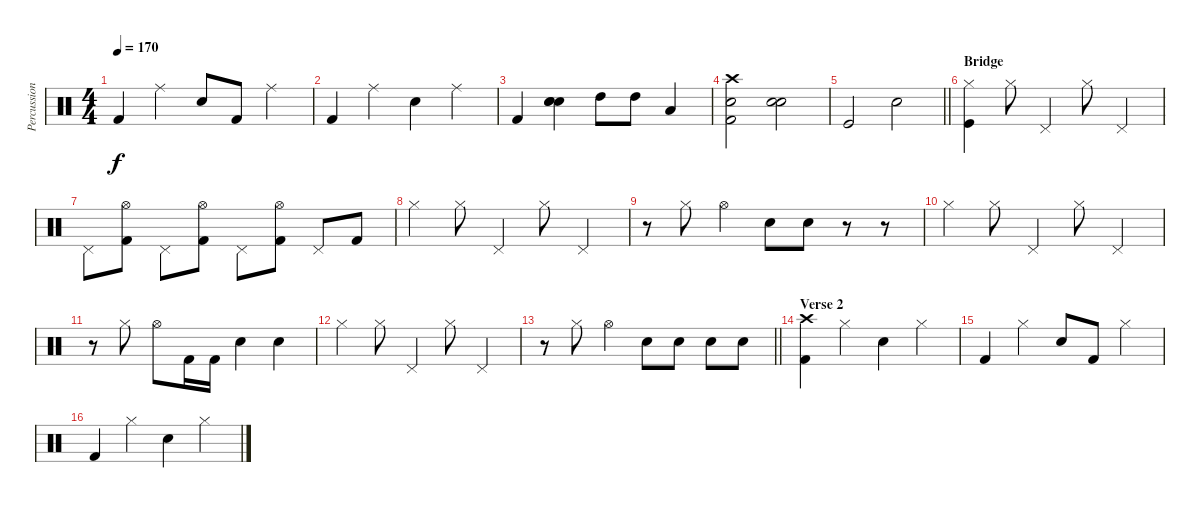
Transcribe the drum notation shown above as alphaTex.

\track ("Percussion" "Percussion") {instrument percussion}
\staff {score}
\articulation defaults
\ts (4 4)
\tempo 170
\clef neutral
\ks c "Kick (hit) 2".4{dy f} "Ride (middle)".4 "Snare (hit) 2".8 "Kick (hit) 2".8 "Ride (middle)".4
|
"Kick (hit) 2".4 "Ride (middle)".4 "Snare (hit) 2".4 "Ride (middle)".4 |
"Kick (hit) 2".4 ("Snare (hit) 2" "Snare (hit) 2" "Snare (hit) 2").4 "High Tom (hit)".8 "High Tom (hit)".8 "Low Tom (hit)".4 |
("Snare (hit) 2" "Crash high (hit)" "Kick (hit) 2").2 ("Snare (hit) 2" "Snare (hit) 2").2 |
\barLineRight lightlight "Kick (hit)".2 "Snare (hit) 2".2
|
\section ("" "Bridge")
("Kick (hit)" "Hi-Hat (closed)").4 "Hi-Hat (closed)".8 "Pedal Hi-Hat (hit)".4 "Hi-Hat (closed)".8 "Pedal Hi-Hat (hit)".4 |
"Pedal Hi-Hat (hit)".8 ("Hi-Hat (open)" "Kick (hit) 2").8 "Pedal Hi-Hat (hit)".8 ("Hi-Hat (open)" "Kick (hit) 2").8 "Pedal Hi-Hat (hit)".8 ("Hi-Hat (open)" "Kick (hit) 2").8 "Pedal Hi-Hat (hit)".8 "Kick (hit) 2".8 |
"Hi-Hat (closed)".4 "Hi-Hat (closed)".8 "Pedal Hi-Hat (hit)".4 "Hi-Hat (closed)".8 "Pedal Hi-Hat (hit)".4 |
r.8 "Hi-Hat (closed)".8 "Hi-Hat (open)".4 "Snare (hit) 2".8 "Snare (hit) 2".8 r.8 r.8 |
"Hi-Hat (closed)".4 "Hi-Hat (closed)".8 "Pedal Hi-Hat (hit)".4 "Hi-Hat (closed)".8 "Pedal Hi-Hat (hit)".4 |
r.8 "Hi-Hat (closed)".8 "Hi-Hat (open)".8 "Kick (hit) 2".16 "Kick (hit) 2".16 "Snare (hit) 2".4 "Snare (hit) 2".4 |
"Hi-Hat (closed)".4 "Hi-Hat (closed)".8 "Pedal Hi-Hat (hit)".4 "Hi-Hat (closed)".8 "Pedal Hi-Hat (hit)".4 |
\barLineRight lightlight
r.8 "Hi-Hat (closed)".8 "Hi-Hat (open)".4 "Snare (hit) 2".8 "Snare (hit) 2".8 "Snare (hit) 2".8 "Snare (hit) 2".8 |
\section ("" "Verse 2")
("Crash high (hit)" "Kick (hit) 2").4 "Hi-Hat (closed)".4 "Snare (hit) 2".4 "Hi-Hat (closed)".4 |
"Kick (hit) 2".4 "Hi-Hat (closed)".4 "Snare (hit) 2".8 "Kick (hit) 2".8 "Hi-Hat (closed)".4 |
"Kick (hit) 2".4 "Hi-Hat (closed)".4 "Snare (hit) 2".4 "Hi-Hat (closed)".4
